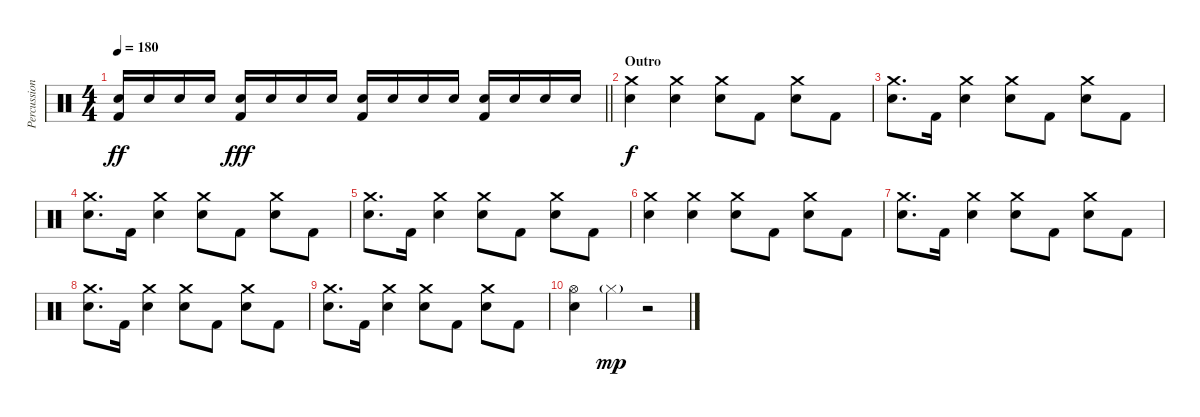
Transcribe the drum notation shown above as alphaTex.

\track ("Percussion" "Percussion") {instrument percussion}
\staff {score}
\articulation defaults
\ts (4 4)
\tempo 180
\clef neutral
\barLineRight lightlight
\ks c
("Snare (hit) 2" "Kick (hit) 2").16{dy ff} "Snare (hit) 2".16 "Snare (hit) 2".16 "Snare (hit) 2".16 ("Snare (hit) 2" "Kick (hit) 2").16{dy fff} "Snare (hit) 2".16 "Snare (hit) 2".16 "Snare (hit) 2".16 ("Snare (hit) 2" "Kick (hit) 2").16 "Snare (hit) 2".16 "Snare (hit) 2".16 "Snare (hit) 2".16 ("Snare (hit) 2" "Kick (hit) 2").16 "Snare (hit) 2".16 "Snare (hit) 2".16 "Snare (hit) 2".16 |
\section ("" "Outro")
("Crash medium (hit)" "Snare (hit) 2").4{dy f} ("Crash medium (hit)" "Snare (hit) 2").4 ("Crash medium (hit)" "Snare (hit) 2").8 "Kick (hit) 2".8 ("Crash medium (hit)" "Snare (hit) 2").8 "Kick (hit) 2".8 |
("Crash medium (hit)" "Snare (hit) 2").8{d} "Kick (hit) 2".16 ("Crash medium (hit)" "Snare (hit) 2").4 ("Crash medium (hit)" "Snare (hit) 2").8 "Kick (hit) 2".8 ("Crash medium (hit)" "Snare (hit) 2").8 "Kick (hit) 2".8 |
("Crash medium (hit)" "Snare (hit) 2").8{d} "Kick (hit) 2".16 ("Crash medium (hit)" "Snare (hit) 2").4 ("Crash medium (hit)" "Snare (hit) 2").8 "Kick (hit) 2".8 ("Crash medium (hit)" "Snare (hit) 2").8 "Kick (hit) 2".8 |
("Crash medium (hit)" "Snare (hit) 2").8{d} "Kick (hit) 2".16 ("Crash medium (hit)" "Snare (hit) 2").4 ("Crash medium (hit)" "Snare (hit) 2").8 "Kick (hit) 2".8 ("Crash medium (hit)" "Snare (hit) 2").8 "Kick (hit) 2".8 |
("Crash medium (hit)" "Snare (hit) 2").4 ("Crash medium (hit)" "Snare (hit) 2").4 ("Crash medium (hit)" "Snare (hit) 2").8 "Kick (hit) 2".8 ("Crash medium (hit)" "Snare (hit) 2").8 "Kick (hit) 2".8 |
("Crash medium (hit)" "Snare (hit) 2").8{d} "Kick (hit) 2".16 ("Crash medium (hit)" "Snare (hit) 2").4 ("Crash medium (hit)" "Snare (hit) 2").8 "Kick (hit) 2".8 ("Crash medium (hit)" "Snare (hit) 2").8 "Kick (hit) 2".8 |
("Crash medium (hit)" "Snare (hit) 2").8{d} "Kick (hit) 2".16 ("Crash medium (hit)" "Snare (hit) 2").4 ("Crash medium (hit)" "Snare (hit) 2").8 "Kick (hit) 2".8 ("Crash medium (hit)" "Snare (hit) 2").8 "Kick (hit) 2".8 |
("Crash medium (hit)" "Snare (hit) 2").8{d} "Kick (hit) 2".16 ("Crash medium (hit)" "Snare (hit) 2").4 ("Crash medium (hit)" "Snare (hit) 2").8 "Kick (hit) 2".8 ("Crash medium (hit)" "Snare (hit) 2").8 "Kick (hit) 2".8 |
("Hi-Hat (open)" "Snare (hit) 2").4 "Hi-Hat (closed)"{g}.4{dy mp} r.2
